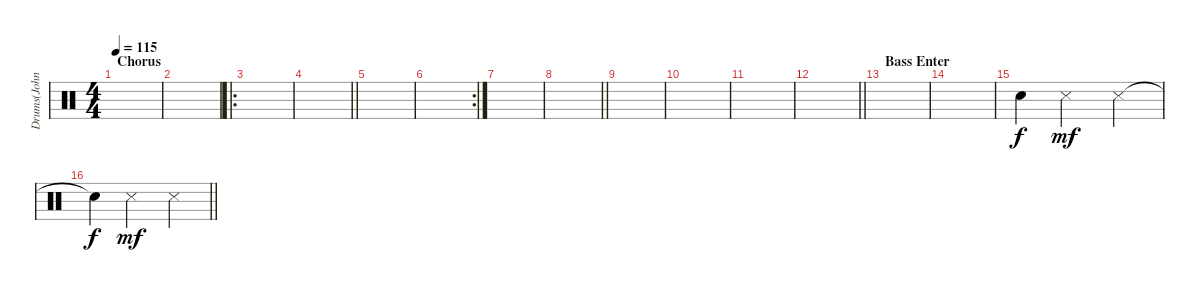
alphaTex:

\track ("Drums(John)" "Drums(John") {instrument percussion}
\staff {score}
\articulation defaults
\ts (4 4)
\section ("" "Chorus")
\tempo 115
\clef neutral
\ks c
|
|
\ro
|
\barLineRight lightlight
|
\section ("" "")
|
\rc 2
|
|
\barLineRight lightlight
|
\section ("" "")
|
|
|
\barLineRight lightlight
|
\section ("" "Bass Enter")
|
|
"Snare (hit)".4 "Snare (side stick) 3".2{dy mf} "Snare (side stick) 3".4 |
\barLineRight lightlight "Snare (hit)"{t}.4{dy f} "Snare (side stick) 3".2{dy mf} "Snare (side stick) 3".4
